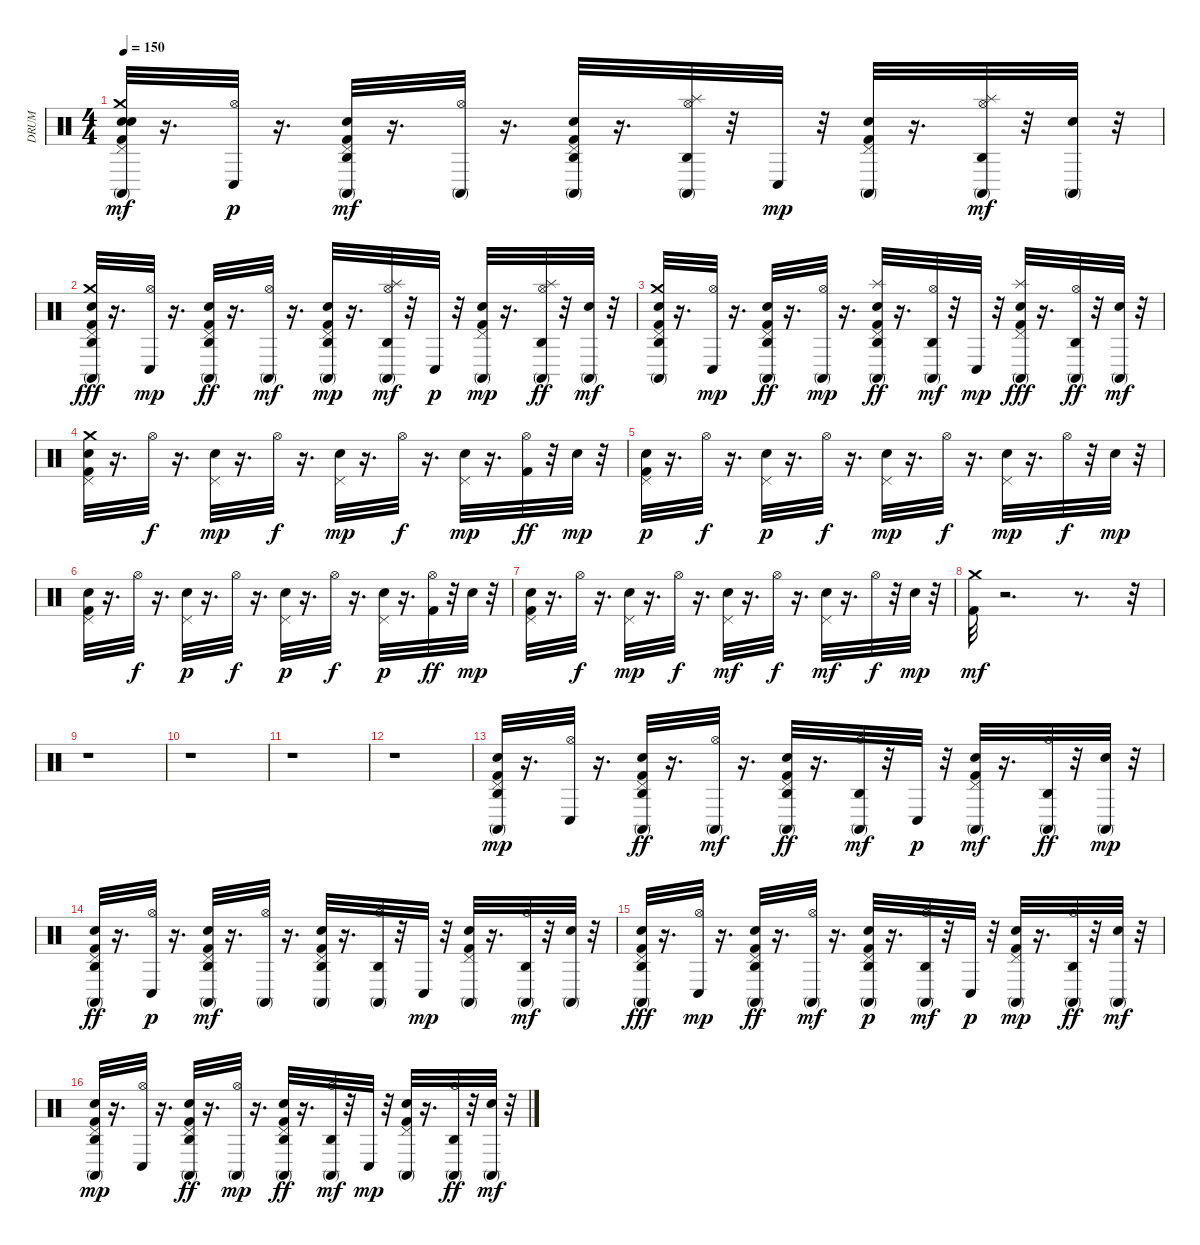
\track ("DRUM" "DRUM") {instrument percussion}
\staff {score}
\articulation defaults
\ts (4 4)
\tempo 150
\clef neutral
\ks c
("Kick (hit) 2" "Hand Clap (hit)" "Hand Clap (hit)" "Pedal Hi-Hat (hit)" "Crash medium (hit)" "Conga high (mute)").32{dy mf} r.16{d} ("Hi-Hat (open)" "Conga low (hit)").32{dy p} r.16{d} ("Kick (hit) 2" "Hand Clap (hit)" "Pedal Hi-Hat (hit)" "Conga high (mute)" "Agogo high (hit)").32{dy mf} r.16{d} ("Hi-Hat (open)" "Conga high (mute)").32 r.16{d} ("Kick (hit) 2" "Hand Clap (hit)" "Pedal Hi-Hat (hit)" "Conga high (mute)" "Agogo high (hit)").32 r.16{d} ("Hi-Hat (open)" "Splash (hit)" "Conga high (mute)" "Agogo high (hit)").32 r.32 "Conga low (hit)".32{dy mp} r.32 ("Kick (hit) 2" "Hand Clap (hit)" "Pedal Hi-Hat (hit)" "Conga high (mute)").32 r.16{d} ("Hi-Hat (open)" "Splash (hit)" "Conga high (mute)" "Agogo high (hit)").32{dy mf} r.32 ("Hand Clap (hit)" "Conga high (mute)").32 r.32 |
("Kick (hit) 2" "Hand Clap (hit)" "Pedal Hi-Hat (hit)" "Crash medium (hit)" "Conga high (mute)" "Agogo high (hit)").32{dy fff} r.16{d} ("Hi-Hat (open)" "Conga low (hit)").32{dy mp} r.16{d} ("Kick (hit) 2" "Hand Clap (hit)" "Pedal Hi-Hat (hit)" "Conga high (mute)" "Agogo high (hit)").32{dy ff} r.16{d} ("Hi-Hat (open)" "Conga high (mute)").32{dy mf} r.16{d} ("Kick (hit) 2" "Hand Clap (hit)" "Pedal Hi-Hat (hit)" "Conga high (mute)" "Agogo high (hit)").32{dy mp} r.16{d} ("Hi-Hat (open)" "Splash (hit)" "Conga high (mute)" "Agogo high (hit)").32{dy mf} r.32 "Conga low (hit)".32{dy p} r.32 ("Kick (hit) 2" "Hand Clap (hit)" "Pedal Hi-Hat (hit)" "Conga high (mute)").32{dy mp} r.16{d} ("Hi-Hat (open)" "Splash (hit)" "Conga high (mute)" "Agogo high (hit)").32{dy ff} r.32 ("Hand Clap (hit)" "Conga high (mute)").32{dy mf} r.32 |
("Kick (hit) 2" "Hand Clap (hit)" "Pedal Hi-Hat (hit)" "Crash medium (hit)" "Conga high (mute)" "Agogo high (hit)").32 r.16{d} ("Hi-Hat (open)" "Conga low (hit)").32{dy mp} r.16{d} ("Kick (hit) 2" "Hand Clap (hit)" "Pedal Hi-Hat (hit)" "Conga high (mute)" "Agogo high (hit)").32{dy ff} r.16{d} ("Hi-Hat (open)" "Conga high (mute)").32{dy mp} r.16{d} ("Kick (hit) 2" "Hand Clap (hit)" "Pedal Hi-Hat (hit)" "Splash (hit)" "Conga high (mute)" "Agogo high (hit)").32{dy ff} r.16{d} ("Hi-Hat (open)" "Conga high (mute)" "Agogo high (hit)").32{dy mf} r.32 "Conga low (hit)".32{dy mp} r.32 ("Kick (hit) 2" "Hand Clap (hit)" "Pedal Hi-Hat (hit)" "Splash (hit)" "Conga high (mute)").32{dy fff} r.16{d} ("Hi-Hat (open)" "Conga high (mute)" "Agogo high (hit)").32{dy ff} r.32 ("Hand Clap (hit)" "Conga high (mute)").32{dy mf} r.32 |
("Kick (hit) 2" "Hand Clap (hit)" "Pedal Hi-Hat (hit)" "Crash medium (hit)").32 r.16{d} "Hi-Hat (open)".32{dy f} r.16{d} ("Hand Clap (hit)" "Pedal Hi-Hat (hit)").32{dy mp} r.16{d} "Hi-Hat (open)".32{dy f} r.16{d} ("Hand Clap (hit)" "Pedal Hi-Hat (hit)").32{dy mp} r.16{d} "Hi-Hat (open)".32{dy f} r.16{d} ("Hand Clap (hit)" "Pedal Hi-Hat (hit)").32{dy mp} r.16{d} ("Kick (hit) 2" "Hi-Hat (open)").32{dy ff} r.32 "Hand Clap (hit)".32{dy mp} r.32 |
("Kick (hit) 2" "Hand Clap (hit)" "Pedal Hi-Hat (hit)").32{dy p} r.16{d} "Hi-Hat (open)".32{dy f} r.16{d} ("Hand Clap (hit)" "Pedal Hi-Hat (hit)").32{dy p} r.16{d} "Hi-Hat (open)".32{dy f} r.16{d} ("Hand Clap (hit)" "Pedal Hi-Hat (hit)").32{dy mp} r.16{d} "Hi-Hat (open)".32{dy f} r.16{d} ("Hand Clap (hit)" "Pedal Hi-Hat (hit)").32{dy mp} r.16{d} "Hi-Hat (open)".32{dy f} r.32 "Hand Clap (hit)".32{dy mp} r.32 |
("Kick (hit) 2" "Hand Clap (hit)" "Pedal Hi-Hat (hit)").32 r.16{d} "Hi-Hat (open)".32{dy f} r.16{d} ("Hand Clap (hit)" "Pedal Hi-Hat (hit)").32{dy p} r.16{d} "Hi-Hat (open)".32{dy f} r.16{d} ("Hand Clap (hit)" "Pedal Hi-Hat (hit)").32{dy p} r.16{d} "Hi-Hat (open)".32{dy f} r.16{d} ("Hand Clap (hit)" "Pedal Hi-Hat (hit)").32{dy p} r.16{d} ("Kick (hit) 2" "Hi-Hat (open)").32{dy ff} r.32 "Hand Clap (hit)".32{dy mp} r.32 |
("Kick (hit) 2" "Hand Clap (hit)" "Pedal Hi-Hat (hit)").32 r.16{d} "Hi-Hat (open)".32{dy f} r.16{d} ("Hand Clap (hit)" "Pedal Hi-Hat (hit)").32{dy mp} r.16{d} "Hi-Hat (open)".32{dy f} r.16{d} ("Hand Clap (hit)" "Pedal Hi-Hat (hit)").32{dy mf} r.16{d} "Hi-Hat (open)".32{dy f} r.16{d} ("Hand Clap (hit)" "Pedal Hi-Hat (hit)").32{dy mf} r.16{d} "Hi-Hat (open)".32{dy f} r.32 "Hand Clap (hit)".32{dy mp} r.32 |
("Kick (hit) 2" "Crash medium (hit)").32{dy mf} r.2{d} r.8{d} r.32 |
r.1 |
r.1 |
r.1 |
r.1 |
("Kick (hit) 2" "Hand Clap (hit)" "Pedal Hi-Hat (hit)" "Conga high (mute)" "Agogo high (hit)").32{dy mp} r.16{d} ("Hi-Hat (open)" "Conga low (hit)").32 r.16{d} ("Kick (hit) 2" "Hand Clap (hit)" "Pedal Hi-Hat (hit)" "Conga high (mute)" "Agogo high (hit)").32{dy ff} r.16{d} ("Hi-Hat (open)" "Conga high (mute)").32{dy mf} r.16{d} ("Kick (hit) 2" "Hand Clap (hit)" "Pedal Hi-Hat (hit)" "Conga high (mute)" "Agogo high (hit)").32{dy ff} r.16{d} ("Hi-Hat (open)" "Conga high (mute)" "Agogo high (hit)").32{dy mf} r.32 "Conga low (hit)".32{dy p} r.32 ("Kick (hit) 2" "Hand Clap (hit)" "Pedal Hi-Hat (hit)" "Conga high (mute)").32{dy mf} r.16{d} ("Hi-Hat (open)" "Conga high (mute)" "Agogo high (hit)").32{dy ff} r.32 ("Hand Clap (hit)" "Conga high (mute)").32{dy mp} r.32 |
("Kick (hit) 2" "Hand Clap (hit)" "Pedal Hi-Hat (hit)" "Conga high (mute)" "Agogo high (hit)").32{dy ff} r.16{d} ("Hi-Hat (open)" "Conga low (hit)").32{dy p} r.16{d} ("Kick (hit) 2" "Hand Clap (hit)" "Pedal Hi-Hat (hit)" "Conga high (mute)" "Agogo high (hit)").32{dy mf} r.16{d} ("Hi-Hat (open)" "Conga high (mute)").32 r.16{d} ("Kick (hit) 2" "Hand Clap (hit)" "Pedal Hi-Hat (hit)" "Conga high (mute)" "Agogo high (hit)").32 r.16{d} ("Hi-Hat (open)" "Conga high (mute)" "Agogo high (hit)").32 r.32 "Conga low (hit)".32{dy mp} r.32 ("Kick (hit) 2" "Hand Clap (hit)" "Pedal Hi-Hat (hit)" "Conga high (mute)").32 r.16{d} ("Hi-Hat (open)" "Conga high (mute)" "Agogo high (hit)").32{dy mf} r.32 ("Hand Clap (hit)" "Conga high (mute)").32 r.32 |
("Kick (hit) 2" "Hand Clap (hit)" "Pedal Hi-Hat (hit)" "Conga high (mute)" "Agogo high (hit)").32{dy fff} r.16{d} ("Hi-Hat (open)" "Conga low (hit)").32{dy mp} r.16{d} ("Kick (hit) 2" "Hand Clap (hit)" "Pedal Hi-Hat (hit)" "Conga high (mute)" "Agogo high (hit)").32{dy ff} r.16{d} ("Hi-Hat (open)" "Conga high (mute)").32{dy mf} r.16{d} ("Kick (hit) 2" "Hand Clap (hit)" "Pedal Hi-Hat (hit)" "Conga high (mute)" "Agogo high (hit)").32{dy p} r.16{d} ("Hi-Hat (open)" "Conga high (mute)" "Agogo high (hit)").32{dy mf} r.32 "Conga low (hit)".32{dy p} r.32 ("Kick (hit) 2" "Hand Clap (hit)" "Pedal Hi-Hat (hit)" "Conga high (mute)").32{dy mp} r.16{d} ("Hi-Hat (open)" "Conga high (mute)" "Agogo high (hit)").32{dy ff} r.32 ("Hand Clap (hit)" "Conga high (mute)").32{dy mf} r.32 |
("Kick (hit) 2" "Hand Clap (hit)" "Pedal Hi-Hat (hit)" "Conga high (mute)" "Agogo high (hit)").32{dy mp} r.16{d} ("Hi-Hat (open)" "Conga low (hit)").32 r.16{d} ("Kick (hit) 2" "Hand Clap (hit)" "Pedal Hi-Hat (hit)" "Conga high (mute)" "Agogo high (hit)").32{dy ff} r.16{d} ("Hi-Hat (open)" "Conga high (mute)").32{dy mp} r.16{d} ("Kick (hit) 2" "Hand Clap (hit)" "Pedal Hi-Hat (hit)" "Conga high (mute)" "Agogo high (hit)").32{dy ff} r.16{d} ("Hi-Hat (open)" "Conga high (mute)" "Agogo high (hit)").32{dy mf} r.32 "Conga low (hit)".32{dy mp} r.32 ("Kick (hit) 2" "Hand Clap (hit)" "Pedal Hi-Hat (hit)" "Conga high (mute)").32 r.16{d} ("Hi-Hat (open)" "Conga high (mute)" "Agogo high (hit)").32{dy ff} r.32 ("Hand Clap (hit)" "Conga high (mute)").32{dy mf} r.32
